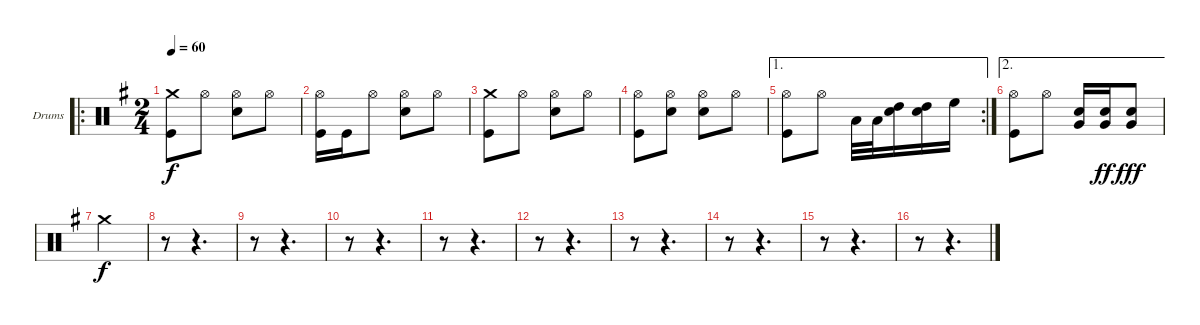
\defaultSystemsLayout 4
\bracketExtendMode groupsimilarinstruments
\firstSystemTrackNameOrientation horizontal
\otherSystemsTrackNameOrientation horizontal
\track ("Drumkit" "Drums") {instrument percussion}
\staff {score}
\articulation defaults
\ro
\ts (2 4)
\tempo 60
\clef neutral
\ks eminor
("Crash medium (hit)" "Kick (hit)").8{dy f} "Hi-Hat (open)".8 ("Hi-Hat (open)" "Snare (hit) 2").8 "Hi-Hat (open)".8 |
("Hi-Hat (open)" "Kick (hit)").16 "Kick (hit)".16 "Hi-Hat (open)".8 ("Hi-Hat (open)" "Snare (hit) 2").8 "Hi-Hat (open)".8 |
("Crash medium (hit)" "Kick (hit)").8 "Hi-Hat (open)".8 ("Hi-Hat (open)" "Snare (hit) 2").8 "Hi-Hat (open)".8 |
("Hi-Hat (open)" "Kick (hit)").8 ("Hi-Hat (open)" "Snare (hit) 2").8 ("Hi-Hat (open)" "Snare (hit) 2").8 "Hi-Hat (open)".8 |
\ae 1
\rc 2
("Hi-Hat (open)" "Kick (hit)").8 "Hi-Hat (open)".8 "Low Tom (hit)".32 "Low Tom (hit)".32 ("Snare (hit) 2" "High Tom (hit)").16 ("Snare (hit) 2" "High Tom (hit)").16 "High Floor Tom (hit)".16 |
\ae 2
("Hi-Hat (open)" "Kick (hit)").8 "Hi-Hat (open)".8 ("Snare (hit) 2" "Very Low Tom (hit)").16 ("Snare (hit) 2" "Very Low Tom (hit)").16{dy ff} ("Snare (hit) 2" "Very Low Tom (hit)").8{dy fff} |
"Crash medium (hit)".2{dy f} |
r.8 r.4{d} |
r.8 r.4{d} |
r.8 r.4{d} |
r.8 r.4{d} |
r.8 r.4{d} |
r.8 r.4{d} |
r.8 r.4{d} |
r.8 r.4{d} |
r.8 r.4{d}
